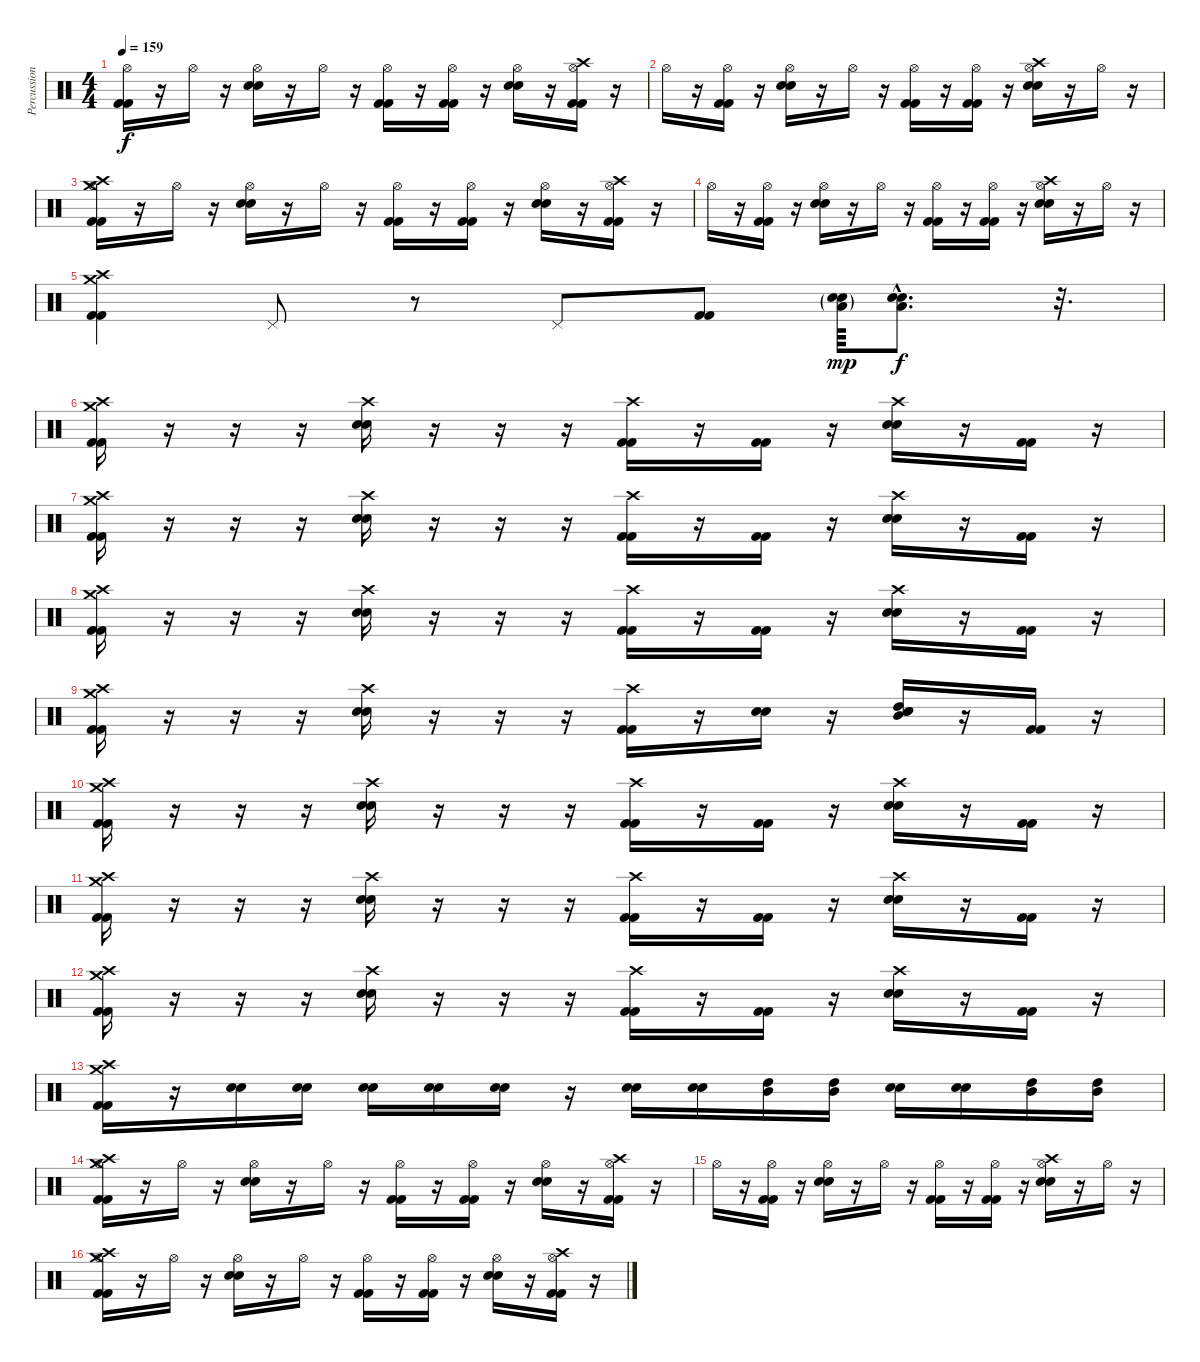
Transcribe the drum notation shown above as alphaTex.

\track ("Percussioni" "Percussion") {instrument percussion}
\staff {score}
\articulation defaults
\ts (4 4)
\tempo 159
\clef neutral
\ks c
("Hi-Hat (open)" "Kick (hit) 2" "Kick (hit) 2").16{dy f} r.16 "Hi-Hat (open)".16 r.16 ("Hi-Hat (open)" "Snare (hit) 2" "Snare (hit) 2").16 r.16 "Hi-Hat (open)".16 r.16 ("Hi-Hat (open)" "Kick (hit) 2" "Kick (hit) 2").16 r.16 ("Hi-Hat (open)" "Kick (hit) 2" "Kick (hit) 2").16 r.16 ("Hi-Hat (open)" "Snare (hit) 2" "Snare (hit) 2").16 r.16 ("Hi-Hat (open)" "Crash high (hit)" "Kick (hit) 2" "Kick (hit) 2").16 r.16 |
"Hi-Hat (open)".16 r.16 ("Hi-Hat (open)" "Kick (hit) 2" "Kick (hit) 2").16 r.16 ("Hi-Hat (open)" "Snare (hit) 2" "Snare (hit) 2").16 r.16 "Hi-Hat (open)".16 r.16 ("Hi-Hat (open)" "Kick (hit) 2" "Kick (hit) 2").16 r.16 ("Hi-Hat (open)" "Kick (hit) 2" "Kick (hit) 2").16 r.16 ("Hi-Hat (open)" "Crash high (hit)" "Snare (hit) 2" "Snare (hit) 2").16 r.16 "Hi-Hat (open)".16 r.16 |
("Hi-Hat (open)" "Crash high (hit)" "Crash medium (hit)" "Kick (hit) 2" "Kick (hit) 2").16 r.16 "Hi-Hat (open)".16 r.16 ("Hi-Hat (open)" "Snare (hit) 2" "Snare (hit) 2").16 r.16 "Hi-Hat (open)".16 r.16 ("Hi-Hat (open)" "Kick (hit) 2" "Kick (hit) 2").16 r.16 ("Hi-Hat (open)" "Kick (hit) 2" "Kick (hit) 2").16 r.16 ("Hi-Hat (open)" "Snare (hit) 2" "Snare (hit) 2").16 r.16 ("Hi-Hat (open)" "Crash high (hit)" "Kick (hit) 2" "Kick (hit) 2").16 r.16 |
"Hi-Hat (open)".16 r.16 ("Hi-Hat (open)" "Kick (hit) 2" "Kick (hit) 2").16 r.16 ("Hi-Hat (open)" "Snare (hit) 2" "Snare (hit) 2").16 r.16 "Hi-Hat (open)".16 r.16 ("Hi-Hat (open)" "Kick (hit) 2" "Kick (hit) 2").16 r.16 ("Hi-Hat (open)" "Kick (hit) 2" "Kick (hit) 2").16 r.16 ("Hi-Hat (open)" "Crash high (hit)" "Snare (hit) 2" "Snare (hit) 2").16 r.16 "Hi-Hat (open)".16 r.16 |
("Crash medium (hit)" "Crash high (hit)" "Kick (hit) 2" "Kick (hit) 2").4 "Pedal Hi-Hat (hit)".8 r.8 "Pedal Hi-Hat (hit)".8 ("Kick (hit) 2" "Kick (hit) 2").8 ("Low Tom (hit)"{g} "Snare (hit) 2"{g} "Snare (hit) 2"{g}).64{dy mp} ("Low Tom (hit)"{hac} "Snare (hit) 2"{hac} "Snare (hit) 2"{hac}).8{d dy f} r.32{d} |
("Crash high (hit)" "Crash medium (hit)" "Kick (hit) 2" "Kick (hit) 2").16 r.16 r.16 r.16 ("Crash high (hit)" "Snare (hit) 2" "Snare (hit) 2").16 r.16 r.16 r.16 ("Crash high (hit)" "Kick (hit) 2" "Kick (hit) 2").16 r.16 ("Kick (hit) 2" "Kick (hit) 2").16 r.16 ("Crash high (hit)" "Snare (hit) 2" "Snare (hit) 2").16 r.16 ("Kick (hit) 2" "Kick (hit) 2").16 r.16 |
("Crash high (hit)" "Crash medium (hit)" "Kick (hit) 2" "Kick (hit) 2").16 r.16 r.16 r.16 ("Crash high (hit)" "Snare (hit) 2" "Snare (hit) 2").16 r.16 r.16 r.16 ("Crash high (hit)" "Kick (hit) 2" "Kick (hit) 2").16 r.16 ("Kick (hit) 2" "Kick (hit) 2").16 r.16 ("Crash high (hit)" "Snare (hit) 2" "Snare (hit) 2").16 r.16 ("Kick (hit) 2" "Kick (hit) 2").16 r.16 |
("Crash high (hit)" "Crash medium (hit)" "Kick (hit) 2" "Kick (hit) 2").16 r.16 r.16 r.16 ("Crash high (hit)" "Snare (hit) 2" "Snare (hit) 2").16 r.16 r.16 r.16 ("Crash high (hit)" "Kick (hit) 2" "Kick (hit) 2").16 r.16 ("Kick (hit) 2" "Kick (hit) 2").16 r.16 ("Crash high (hit)" "Snare (hit) 2" "Snare (hit) 2").16 r.16 ("Kick (hit) 2" "Kick (hit) 2").16 r.16 |
("Crash high (hit)" "Crash medium (hit)" "Kick (hit) 2" "Kick (hit) 2").16 r.16 r.16 r.16 ("Crash high (hit)" "Snare (hit) 2" "Snare (hit) 2").16 r.16 r.16 r.16 ("Crash high (hit)" "Kick (hit) 2" "Kick (hit) 2").16 r.16 ("Snare (hit) 2" "Snare (hit) 2").16 r.16 ("High Tom (hit)" "Mid Tom (hit)" "Snare (hit) 2" "Snare (hit) 2").16 r.16 ("Kick (hit) 2" "Kick (hit) 2").16 r.16 |
("Crash high (hit)" "Crash medium (hit)" "Kick (hit) 2" "Kick (hit) 2").16 r.16 r.16 r.16 ("Crash high (hit)" "Snare (hit) 2" "Snare (hit) 2").16 r.16 r.16 r.16 ("Crash high (hit)" "Kick (hit) 2" "Kick (hit) 2").16 r.16 ("Kick (hit) 2" "Kick (hit) 2").16 r.16 ("Crash high (hit)" "Snare (hit) 2" "Snare (hit) 2").16 r.16 ("Kick (hit) 2" "Kick (hit) 2").16 r.16 |
("Crash high (hit)" "Crash medium (hit)" "Kick (hit) 2" "Kick (hit) 2").16 r.16 r.16 r.16 ("Crash high (hit)" "Snare (hit) 2" "Snare (hit) 2").16 r.16 r.16 r.16 ("Crash high (hit)" "Kick (hit) 2" "Kick (hit) 2").16 r.16 ("Kick (hit) 2" "Kick (hit) 2").16 r.16 ("Crash high (hit)" "Snare (hit) 2" "Snare (hit) 2").16 r.16 ("Kick (hit) 2" "Kick (hit) 2").16 r.16 |
("Crash high (hit)" "Crash medium (hit)" "Kick (hit) 2" "Kick (hit) 2").16 r.16 r.16 r.16 ("Crash high (hit)" "Snare (hit) 2" "Snare (hit) 2").16 r.16 r.16 r.16 ("Crash high (hit)" "Kick (hit) 2" "Kick (hit) 2").16 r.16 ("Kick (hit) 2" "Kick (hit) 2").16 r.16 ("Crash high (hit)" "Snare (hit) 2" "Snare (hit) 2").16 r.16 ("Kick (hit) 2" "Kick (hit) 2").16 r.16 |
("Crash high (hit)" "Crash medium (hit)" "Kick (hit) 2" "Kick (hit) 2").16 r.16 ("Snare (hit) 2" "Snare (hit) 2").16 ("Snare (hit) 2" "Snare (hit) 2").16 ("Snare (hit) 2" "Snare (hit) 2").16 ("Snare (hit) 2" "Snare (hit) 2").16 ("Snare (hit) 2" "Snare (hit) 2").16 r.16 ("Snare (hit) 2" "Snare (hit) 2").16 ("Snare (hit) 2" "Snare (hit) 2").16 ("Mid Tom (hit)" "High Tom (hit)").16 ("Mid Tom (hit)" "High Tom (hit)").16 ("Snare (hit) 2" "Snare (hit) 2").16 ("Snare (hit) 2" "Snare (hit) 2").16 ("High Tom (hit)" "Mid Tom (hit)").16 ("High Tom (hit)" "Mid Tom (hit)").16 |
("Hi-Hat (open)" "Crash high (hit)" "Crash medium (hit)" "Kick (hit) 2" "Kick (hit) 2").16 r.16 "Hi-Hat (open)".16 r.16 ("Hi-Hat (open)" "Snare (hit) 2" "Snare (hit) 2").16 r.16 "Hi-Hat (open)".16 r.16 ("Hi-Hat (open)" "Kick (hit) 2" "Kick (hit) 2").16 r.16 ("Hi-Hat (open)" "Kick (hit) 2" "Kick (hit) 2").16 r.16 ("Hi-Hat (open)" "Snare (hit) 2" "Snare (hit) 2").16 r.16 ("Hi-Hat (open)" "Crash high (hit)" "Kick (hit) 2" "Kick (hit) 2").16 r.16 |
"Hi-Hat (open)".16 r.16 ("Hi-Hat (open)" "Kick (hit) 2" "Kick (hit) 2").16 r.16 ("Hi-Hat (open)" "Snare (hit) 2" "Snare (hit) 2").16 r.16 "Hi-Hat (open)".16 r.16 ("Hi-Hat (open)" "Kick (hit) 2" "Kick (hit) 2").16 r.16 ("Hi-Hat (open)" "Kick (hit) 2" "Kick (hit) 2").16 r.16 ("Hi-Hat (open)" "Crash high (hit)" "Snare (hit) 2" "Snare (hit) 2").16 r.16 "Hi-Hat (open)".16 r.16 |
("Hi-Hat (open)" "Crash high (hit)" "Crash medium (hit)" "Kick (hit) 2" "Kick (hit) 2").16 r.16 "Hi-Hat (open)".16 r.16 ("Hi-Hat (open)" "Snare (hit) 2" "Snare (hit) 2").16 r.16 "Hi-Hat (open)".16 r.16 ("Hi-Hat (open)" "Kick (hit) 2" "Kick (hit) 2").16 r.16 ("Hi-Hat (open)" "Kick (hit) 2" "Kick (hit) 2").16 r.16 ("Hi-Hat (open)" "Snare (hit) 2" "Snare (hit) 2").16 r.16 ("Hi-Hat (open)" "Crash high (hit)" "Kick (hit) 2" "Kick (hit) 2").16 r.16
